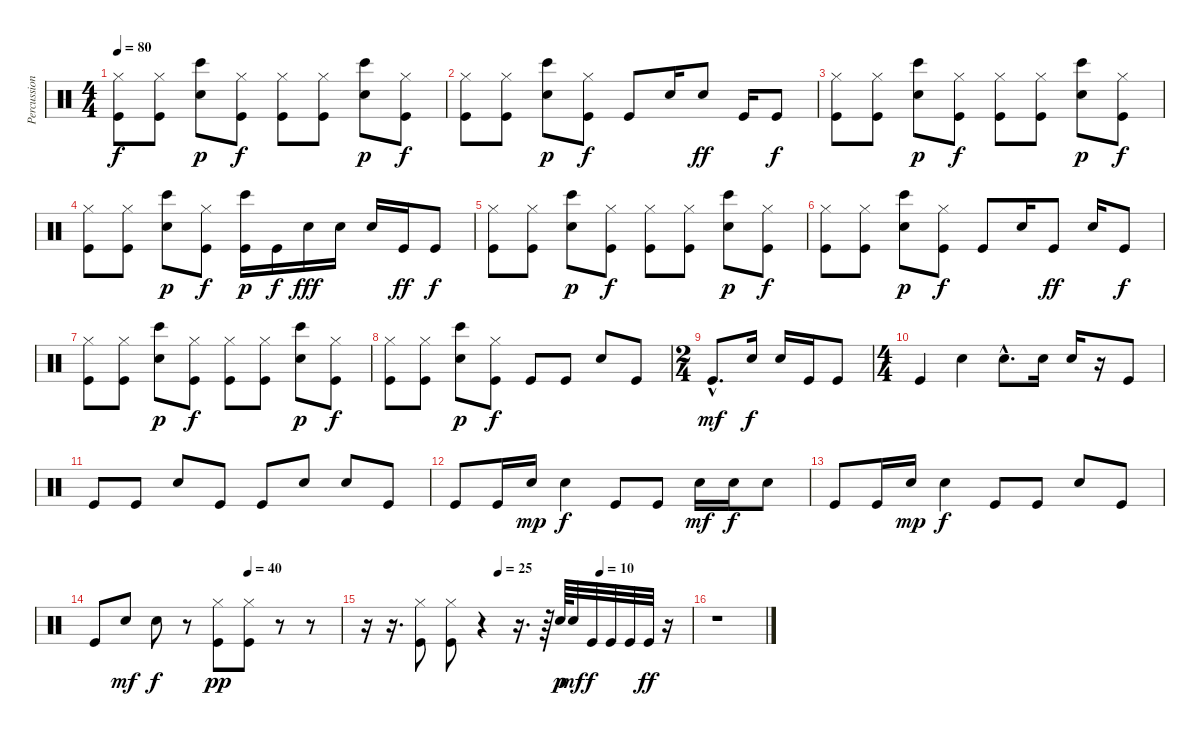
\track ("Percussions" "Percussion") {instrument percussion}
\staff {score}
\articulation defaults
\ts (4 4)
\tempo 80
\clef neutral
\ks c
("Kick (hit)" "Hi-Hat (closed)").8{dy f} ("Kick (hit)" "Hi-Hat (closed)").8 ("Electric Snare (hit)" "Bongo High (hit)").8{dy p} ("Kick (hit)" "Hi-Hat (closed)").8{dy f} ("Kick (hit)" "Hi-Hat (closed)").8 ("Kick (hit)" "Hi-Hat (closed)").8 ("Electric Snare (hit)" "Bongo High (hit)").8{dy p} ("Kick (hit)" "Hi-Hat (closed)").8{dy f} |
("Kick (hit)" "Hi-Hat (closed)").8 ("Kick (hit)" "Hi-Hat (closed)").8 ("Electric Snare (hit)" "Bongo High (hit)").8{dy p} ("Kick (hit)" "Hi-Hat (closed)").8{dy f} "Kick (hit)".8 "Electric Snare (hit)".16 "Electric Snare (hit)".8{dy ff} "Kick (hit)".16 "Kick (hit)".8{dy f} |
("Kick (hit)" "Hi-Hat (closed)").8 ("Kick (hit)" "Hi-Hat (closed)").8 ("Electric Snare (hit)" "Bongo High (hit)").8{dy p} ("Kick (hit)" "Hi-Hat (closed)").8{dy f} ("Kick (hit)" "Hi-Hat (closed)").8 ("Kick (hit)" "Hi-Hat (closed)").8 ("Electric Snare (hit)" "Bongo High (hit)").8{dy p} ("Kick (hit)" "Hi-Hat (closed)").8{dy f} |
("Kick (hit)" "Hi-Hat (closed)").8 ("Kick (hit)" "Hi-Hat (closed)").8 ("Electric Snare (hit)" "Bongo High (hit)").8{dy p} ("Kick (hit)" "Hi-Hat (closed)").8{dy f} ("Kick (hit)" "Bongo High (hit)").16{dy p} "Kick (hit)".16{dy f} "Electric Snare (hit)".16{dy fff} "Electric Snare (hit)".16 "Electric Snare (hit)".16 "Kick (hit)".16{dy ff} "Kick (hit)".8{dy f} |
("Kick (hit)" "Hi-Hat (closed)").8 ("Kick (hit)" "Hi-Hat (closed)").8 ("Electric Snare (hit)" "Bongo High (hit)").8{dy p} ("Kick (hit)" "Hi-Hat (closed)").8{dy f} ("Kick (hit)" "Hi-Hat (closed)").8 ("Kick (hit)" "Hi-Hat (closed)").8 ("Electric Snare (hit)" "Bongo High (hit)").8{dy p} ("Kick (hit)" "Hi-Hat (closed)").8{dy f} |
("Kick (hit)" "Hi-Hat (closed)").8 ("Kick (hit)" "Hi-Hat (closed)").8 ("Electric Snare (hit)" "Bongo High (hit)").8{dy p} ("Kick (hit)" "Hi-Hat (closed)").8{dy f} "Kick (hit)".8 "Electric Snare (hit)".16 "Kick (hit)".8{dy ff} "Electric Snare (hit)".16 "Kick (hit)".8{dy f} |
("Kick (hit)" "Hi-Hat (closed)").8 ("Kick (hit)" "Hi-Hat (closed)").8 ("Electric Snare (hit)" "Bongo High (hit)").8{dy p} ("Kick (hit)" "Hi-Hat (closed)").8{dy f} ("Kick (hit)" "Hi-Hat (closed)").8 ("Kick (hit)" "Hi-Hat (closed)").8 ("Electric Snare (hit)" "Bongo High (hit)").8{dy p} ("Kick (hit)" "Hi-Hat (closed)").8{dy f} |
("Kick (hit)" "Hi-Hat (closed)").8 ("Kick (hit)" "Hi-Hat (closed)").8 ("Electric Snare (hit)" "Bongo High (hit)").8{dy p} ("Kick (hit)" "Hi-Hat (closed)").8{dy f} "Kick (hit)".8 "Kick (hit)".8 "Electric Snare (hit)".8 "Kick (hit)".8 |
\ts (2 4)
"Kick (hit)"{hac}.8{d dy mf} "Electric Snare (hit)".16{dy f} "Electric Snare (hit)".16 "Kick (hit)".16 "Kick (hit)".8 |
\ts (4 4)
"Kick (hit)".4 "Electric Snare (hit)".4 "Electric Snare (hit)"{hac}.8{d} "Electric Snare (hit)".16 "Electric Snare (hit)".16 r.16 "Kick (hit)".8 |
"Kick (hit)".8 "Kick (hit)".8 "Electric Snare (hit)".8 "Kick (hit)".8 "Kick (hit)".8 "Electric Snare (hit)".8 "Electric Snare (hit)".8 "Kick (hit)".8 |
"Kick (hit)".8 "Kick (hit)".16 "Electric Snare (hit)".16{dy mp} "Electric Snare (hit)".4{dy f} "Kick (hit)".8 "Kick (hit)".8 "Electric Snare (hit)".16{dy mf} "Electric Snare (hit)".16{dy f} "Electric Snare (hit)".8 |
"Kick (hit)".8 "Kick (hit)".16 "Electric Snare (hit)".16{dy mp} "Electric Snare (hit)".4{dy f} "Kick (hit)".8 "Kick (hit)".8 "Electric Snare (hit)".8 "Kick (hit)".8 |
\tempo (40 0.625)
"Kick (hit)".8 "Electric Snare (hit)".8{dy mf} "Electric Snare (hit)".8{dy f} r.8 ("Kick (hit)" "Hi-Hat (closed)").8{dy pp} ("Kick (hit)" "Hi-Hat (closed)").8 r.8 r.8 |
\tempo (25 0.40625)
\tempo (10 0.71875)
r.16 r.16{d} ("Kick (hit)" "Hi-Hat (closed)").8 ("Kick (hit)" "Hi-Hat (closed)").8 r.4 r.16{d} r.64 "Electric Snare (hit)".64{dy p} "Electric Snare (hit)".32{dy mf} "Kick (hit)".32{dy f} "Kick (hit)".32 "Kick (hit)".32 "Kick (hit)".32{dy ff} r.16 |
r.1
